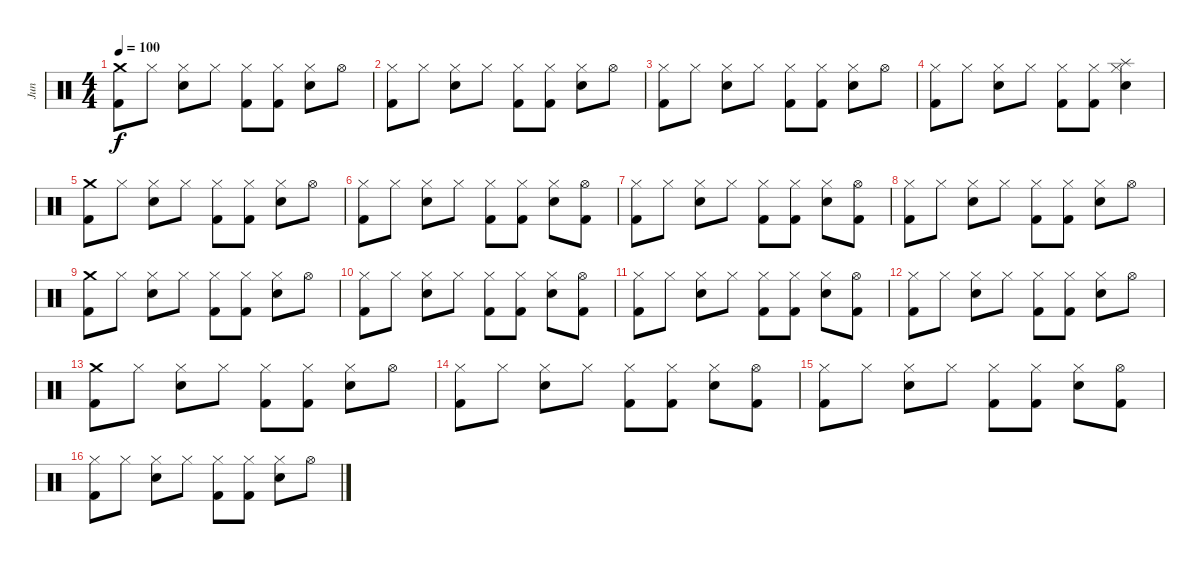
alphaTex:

\track ("Jun " "Jun ") {instrument percussion}
\staff {score}
\articulation defaults
\ts (4 4)
\tempo 100
\clef neutral
\ks c
("Crash medium (hit)" "Kick (hit) 2").8{dy f} "Hi-Hat (closed)".8 ("Hi-Hat (closed)" "Snare (hit) 2").8 "Hi-Hat (closed)".8 ("Hi-Hat (closed)" "Kick (hit) 2").8 ("Hi-Hat (closed)" "Kick (hit) 2").8 ("Hi-Hat (closed)" "Snare (hit) 2").8 "Hi-Hat (open)".8 |
("Hi-Hat (closed)" "Kick (hit) 2").8 "Hi-Hat (closed)".8 ("Hi-Hat (closed)" "Snare (hit) 2").8 "Hi-Hat (closed)".8 ("Hi-Hat (closed)" "Kick (hit) 2").8 ("Hi-Hat (closed)" "Kick (hit) 2").8 ("Hi-Hat (closed)" "Snare (hit) 2").8 "Hi-Hat (open)".8 |
("Hi-Hat (closed)" "Kick (hit) 2").8 "Hi-Hat (closed)".8 ("Hi-Hat (closed)" "Snare (hit) 2").8 "Hi-Hat (closed)".8 ("Hi-Hat (closed)" "Kick (hit) 2").8 ("Hi-Hat (closed)" "Kick (hit) 2").8 ("Hi-Hat (closed)" "Snare (hit) 2").8 "Hi-Hat (open)".8 |
("Hi-Hat (closed)" "Kick (hit) 2").8 "Hi-Hat (closed)".8 ("Hi-Hat (closed)" "Snare (hit) 2").8 "Hi-Hat (closed)".8 ("Hi-Hat (closed)" "Kick (hit) 2").8 ("Hi-Hat (closed)" "Kick (hit) 2").8 ("Hi-Hat (closed)" "Splash (hit)" "Snare (hit) 2").4 |
("Crash medium (hit)" "Kick (hit) 2").8 "Hi-Hat (closed)".8 ("Hi-Hat (closed)" "Snare (hit) 2").8 "Hi-Hat (closed)".8 ("Hi-Hat (closed)" "Kick (hit) 2").8 ("Hi-Hat (closed)" "Kick (hit) 2").8 ("Hi-Hat (closed)" "Snare (hit) 2").8 "Hi-Hat (open)".8 |
("Hi-Hat (closed)" "Kick (hit) 2").8 "Hi-Hat (closed)".8 ("Hi-Hat (closed)" "Snare (hit) 2").8 "Hi-Hat (closed)".8 ("Hi-Hat (closed)" "Kick (hit) 2").8 ("Hi-Hat (closed)" "Kick (hit) 2").8 ("Hi-Hat (closed)" "Snare (hit) 2").8 ("Hi-Hat (open)" "Kick (hit) 2").8 |
("Hi-Hat (closed)" "Kick (hit) 2").8 "Hi-Hat (closed)".8 ("Hi-Hat (closed)" "Snare (hit) 2").8 "Hi-Hat (closed)".8 ("Hi-Hat (closed)" "Kick (hit) 2").8 ("Hi-Hat (closed)" "Kick (hit) 2").8 ("Hi-Hat (closed)" "Snare (hit) 2").8 ("Hi-Hat (open)" "Kick (hit) 2").8 |
("Hi-Hat (closed)" "Kick (hit) 2").8 "Hi-Hat (closed)".8 ("Hi-Hat (closed)" "Snare (hit) 2").8 "Hi-Hat (closed)".8 ("Hi-Hat (closed)" "Kick (hit) 2").8 ("Hi-Hat (closed)" "Kick (hit) 2").8 ("Hi-Hat (closed)" "Snare (hit) 2").8 "Hi-Hat (open)".8 |
("Crash medium (hit)" "Kick (hit) 2").8 "Hi-Hat (closed)".8 ("Hi-Hat (closed)" "Snare (hit) 2").8 "Hi-Hat (closed)".8 ("Hi-Hat (closed)" "Kick (hit) 2").8 ("Hi-Hat (closed)" "Kick (hit) 2").8 ("Hi-Hat (closed)" "Snare (hit) 2").8 "Hi-Hat (open)".8 |
("Hi-Hat (closed)" "Kick (hit) 2").8 "Hi-Hat (closed)".8 ("Hi-Hat (closed)" "Snare (hit) 2").8 "Hi-Hat (closed)".8 ("Hi-Hat (closed)" "Kick (hit) 2").8 ("Hi-Hat (closed)" "Kick (hit) 2").8 ("Hi-Hat (closed)" "Snare (hit) 2").8 ("Hi-Hat (open)" "Kick (hit) 2").8 |
("Hi-Hat (closed)" "Kick (hit) 2").8 "Hi-Hat (closed)".8 ("Hi-Hat (closed)" "Snare (hit) 2").8 "Hi-Hat (closed)".8 ("Hi-Hat (closed)" "Kick (hit) 2").8 ("Hi-Hat (closed)" "Kick (hit) 2").8 ("Hi-Hat (closed)" "Snare (hit) 2").8 ("Hi-Hat (open)" "Kick (hit) 2").8 |
("Hi-Hat (closed)" "Kick (hit) 2").8 "Hi-Hat (closed)".8 ("Hi-Hat (closed)" "Snare (hit) 2").8 "Hi-Hat (closed)".8 ("Hi-Hat (closed)" "Kick (hit) 2").8 ("Hi-Hat (closed)" "Kick (hit) 2").8 ("Hi-Hat (closed)" "Snare (hit) 2").8 "Hi-Hat (open)".8 |
("Crash medium (hit)" "Kick (hit) 2").8 "Hi-Hat (closed)".8 ("Hi-Hat (closed)" "Snare (hit) 2").8 "Hi-Hat (closed)".8 ("Hi-Hat (closed)" "Kick (hit) 2").8 ("Hi-Hat (closed)" "Kick (hit) 2").8 ("Hi-Hat (closed)" "Snare (hit) 2").8 "Hi-Hat (open)".8 |
("Hi-Hat (closed)" "Kick (hit) 2").8 "Hi-Hat (closed)".8 ("Hi-Hat (closed)" "Snare (hit) 2").8 "Hi-Hat (closed)".8 ("Hi-Hat (closed)" "Kick (hit) 2").8 ("Hi-Hat (closed)" "Kick (hit) 2").8 ("Hi-Hat (closed)" "Snare (hit) 2").8 ("Hi-Hat (open)" "Kick (hit) 2").8 |
("Hi-Hat (closed)" "Kick (hit) 2").8 "Hi-Hat (closed)".8 ("Hi-Hat (closed)" "Snare (hit) 2").8 "Hi-Hat (closed)".8 ("Hi-Hat (closed)" "Kick (hit) 2").8 ("Hi-Hat (closed)" "Kick (hit) 2").8 ("Hi-Hat (closed)" "Snare (hit) 2").8 ("Hi-Hat (open)" "Kick (hit) 2").8 |
("Hi-Hat (closed)" "Kick (hit) 2").8 "Hi-Hat (closed)".8 ("Hi-Hat (closed)" "Snare (hit) 2").8 "Hi-Hat (closed)".8 ("Hi-Hat (closed)" "Kick (hit) 2").8 ("Hi-Hat (closed)" "Kick (hit) 2").8 ("Hi-Hat (closed)" "Snare (hit) 2").8 "Hi-Hat (open)".8
